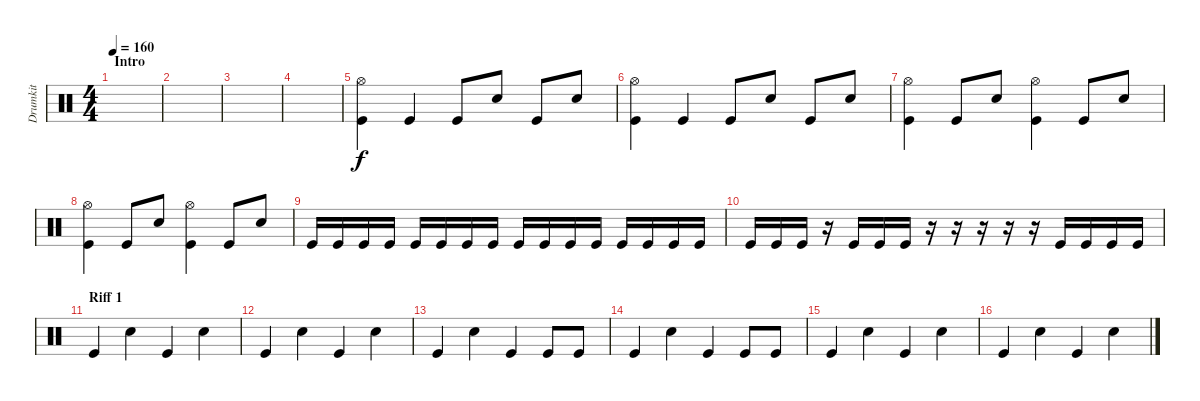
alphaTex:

\track ("Drumkit" "Drumkit") {instrument percussion}
\staff {score}
\articulation defaults
\ts (4 4)
\section ("" "Intro")
\tempo 160
\clef neutral
\ks c
|
|
|
|
("Kick (hit)" "Hi-Hat (open)").4 "Kick (hit)".4 "Kick (hit)".8 "Snare (hit) 2".8 "Kick (hit)".8 "Snare (hit) 2".8 |
("Hi-Hat (open)" "Kick (hit)").4 "Kick (hit)".4 "Kick (hit)".8 "Snare (hit) 2".8 "Kick (hit)".8 "Snare (hit) 2".8 |
("Hi-Hat (open)" "Kick (hit)").4 "Kick (hit)".8 "Snare (hit) 2".8 ("Hi-Hat (open)" "Kick (hit)").4 "Kick (hit)".8 "Snare (hit) 2".8 |
("Hi-Hat (open)" "Kick (hit)").4 "Kick (hit)".8 "Snare (hit) 2".8 ("Hi-Hat (open)" "Kick (hit)").4 "Kick (hit)".8 "Snare (hit) 2".8 |
"Kick (hit)".16 "Kick (hit)".16 "Kick (hit)".16 "Kick (hit)".16 "Kick (hit)".16 "Kick (hit)".16 "Kick (hit)".16 "Kick (hit)".16 "Kick (hit)".16 "Kick (hit)".16 "Kick (hit)".16 "Kick (hit)".16 "Kick (hit)".16 "Kick (hit)".16 "Kick (hit)".16 "Kick (hit)".16 |
"Kick (hit)".16 "Kick (hit)".16 "Kick (hit)".16 r.16 "Kick (hit)".16 "Kick (hit)".16 "Kick (hit)".16 r.16 r.16 r.16 r.16 r.16 "Kick (hit)".16 "Kick (hit)".16 "Kick (hit)".16 "Kick (hit)".16 |
\section ("" "Riff 1")
"Kick (hit)".4 "Hand Clap (hit)".4 "Kick (hit)".4 "Hand Clap (hit)".4 |
"Kick (hit)".4 "Hand Clap (hit)".4 "Kick (hit)".4 "Hand Clap (hit)".4 |
"Kick (hit)".4 "Hand Clap (hit)".4 "Kick (hit)".4 "Kick (hit)".8 "Kick (hit)".8 |
"Kick (hit)".4 "Hand Clap (hit)".4 "Kick (hit)".4 "Kick (hit)".8 "Kick (hit)".8 |
"Kick (hit)".4 "Hand Clap (hit)".4 "Kick (hit)".4 "Hand Clap (hit)".4 |
"Kick (hit)".4 "Hand Clap (hit)".4 "Kick (hit)".4 "Hand Clap (hit)".4
